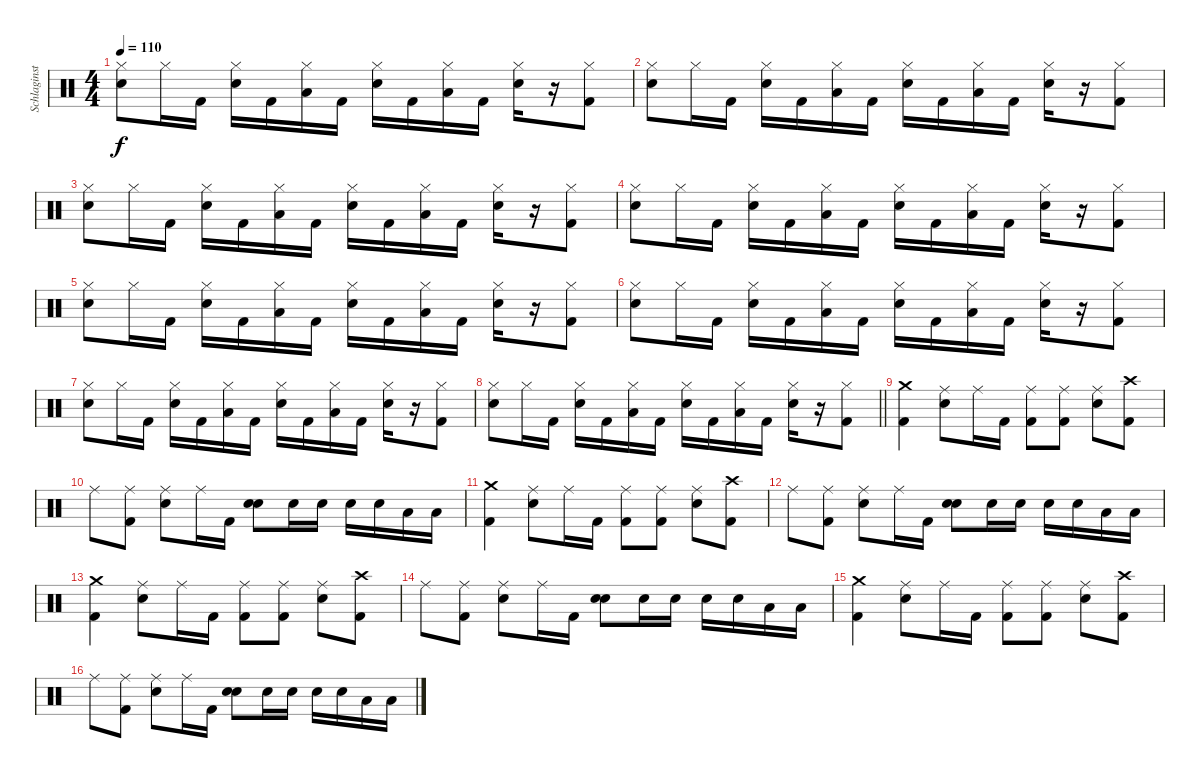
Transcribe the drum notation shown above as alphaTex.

\track ("Schlaginstrumente - Auswahl" "Schlaginst") {instrument percussion}
\staff {score}
\articulation defaults
\ts (4 4)
\tempo 110
\clef neutral
\ks c
("Hi-Hat (closed)" "Snare (hit) 2").8{dy f} "Hi-Hat (closed)".16 "Kick (hit) 2".16 ("Hi-Hat (closed)" "Snare (hit) 2").16 "Kick (hit) 2".16 ("Hi-Hat (closed)" "Low Floor Tom (hit)").16 "Kick (hit) 2".16 ("Hi-Hat (closed)" "Snare (hit) 2").16 "Kick (hit) 2".16 ("Hi-Hat (closed)" "Low Floor Tom (hit)").16 "Kick (hit) 2".16 ("Hi-Hat (closed)" "Snare (hit) 2").16 r.16 ("Hi-Hat (closed)" "Kick (hit) 2").8 |
("Hi-Hat (closed)" "Snare (hit) 2").8 "Hi-Hat (closed)".16 "Kick (hit) 2".16 ("Hi-Hat (closed)" "Snare (hit) 2").16 "Kick (hit) 2".16 ("Hi-Hat (closed)" "Low Floor Tom (hit)").16 "Kick (hit) 2".16 ("Hi-Hat (closed)" "Snare (hit) 2").16 "Kick (hit) 2".16 ("Hi-Hat (closed)" "Low Floor Tom (hit)").16 "Kick (hit) 2".16 ("Hi-Hat (closed)" "Snare (hit) 2").16 r.16 ("Hi-Hat (closed)" "Kick (hit) 2").8 |
("Hi-Hat (closed)" "Snare (hit) 2").8 "Hi-Hat (closed)".16 "Kick (hit) 2".16 ("Hi-Hat (closed)" "Snare (hit) 2").16 "Kick (hit) 2".16 ("Hi-Hat (closed)" "Low Floor Tom (hit)").16 "Kick (hit) 2".16 ("Hi-Hat (closed)" "Snare (hit) 2").16 "Kick (hit) 2".16 ("Hi-Hat (closed)" "Low Floor Tom (hit)").16 "Kick (hit) 2".16 ("Hi-Hat (closed)" "Snare (hit) 2").16 r.16 ("Hi-Hat (closed)" "Kick (hit) 2").8 |
("Hi-Hat (closed)" "Snare (hit) 2").8 "Hi-Hat (closed)".16 "Kick (hit) 2".16 ("Hi-Hat (closed)" "Snare (hit) 2").16 "Kick (hit) 2".16 ("Hi-Hat (closed)" "Low Floor Tom (hit)").16 "Kick (hit) 2".16 ("Hi-Hat (closed)" "Snare (hit) 2").16 "Kick (hit) 2".16 ("Hi-Hat (closed)" "Low Floor Tom (hit)").16 "Kick (hit) 2".16 ("Hi-Hat (closed)" "Snare (hit) 2").16 r.16 ("Hi-Hat (closed)" "Kick (hit) 2").8 |
("Hi-Hat (closed)" "Snare (hit) 2").8 "Hi-Hat (closed)".16 "Kick (hit) 2".16 ("Hi-Hat (closed)" "Snare (hit) 2").16 "Kick (hit) 2".16 ("Hi-Hat (closed)" "Low Floor Tom (hit)").16 "Kick (hit) 2".16 ("Hi-Hat (closed)" "Snare (hit) 2").16 "Kick (hit) 2".16 ("Hi-Hat (closed)" "Low Floor Tom (hit)").16 "Kick (hit) 2".16 ("Hi-Hat (closed)" "Snare (hit) 2").16 r.16 ("Hi-Hat (closed)" "Kick (hit) 2").8 |
("Hi-Hat (closed)" "Snare (hit) 2").8 "Hi-Hat (closed)".16 "Kick (hit) 2".16 ("Hi-Hat (closed)" "Snare (hit) 2").16 "Kick (hit) 2".16 ("Hi-Hat (closed)" "Low Floor Tom (hit)").16 "Kick (hit) 2".16 ("Hi-Hat (closed)" "Snare (hit) 2").16 "Kick (hit) 2".16 ("Hi-Hat (closed)" "Low Floor Tom (hit)").16 "Kick (hit) 2".16 ("Hi-Hat (closed)" "Snare (hit) 2").16 r.16 ("Hi-Hat (closed)" "Kick (hit) 2").8 |
("Hi-Hat (closed)" "Snare (hit) 2").8 "Hi-Hat (closed)".16 "Kick (hit) 2".16 ("Hi-Hat (closed)" "Snare (hit) 2").16 "Kick (hit) 2".16 ("Hi-Hat (closed)" "Low Floor Tom (hit)").16 "Kick (hit) 2".16 ("Hi-Hat (closed)" "Snare (hit) 2").16 "Kick (hit) 2".16 ("Hi-Hat (closed)" "Low Floor Tom (hit)").16 "Kick (hit) 2".16 ("Hi-Hat (closed)" "Snare (hit) 2").16 r.16 ("Hi-Hat (closed)" "Kick (hit) 2").8 |
\barLineRight lightlight
("Hi-Hat (closed)" "Snare (hit) 2").8 "Hi-Hat (closed)".16 "Kick (hit) 2".16 ("Hi-Hat (closed)" "Snare (hit) 2").16 "Kick (hit) 2".16 ("Hi-Hat (closed)" "Low Floor Tom (hit)").16 "Kick (hit) 2".16 ("Hi-Hat (closed)" "Snare (hit) 2").16 "Kick (hit) 2".16 ("Hi-Hat (closed)" "Low Floor Tom (hit)").16 "Kick (hit) 2".16 ("Hi-Hat (closed)" "Snare (hit) 2").16 r.16 ("Hi-Hat (closed)" "Kick (hit) 2").8 |
("Crash medium (hit)" "Kick (hit) 2").4 ("Ride (middle)" "Snare (hit) 2").8 "Ride (middle)".16 "Kick (hit) 2".16 ("Ride (middle)" "Kick (hit) 2").8 ("Ride (middle)" "Kick (hit) 2").8 ("Ride (middle)" "Snare (hit) 2").8 ("Crash high (hit)" "Kick (hit) 2").8 |
"Ride (middle)".8 ("Ride (middle)" "Kick (hit) 2").8 ("Ride (middle)" "Snare (hit) 2").8 "Ride (middle)".16 "Kick (hit) 2".16 ("Snare (hit) 2" "Snare (hit) 2").8{bd 240} "Snare (hit) 2".16 "Snare (hit) 2".16 "Snare (hit) 2".16 "Snare (hit) 2".16 "Low Tom (hit)".16 "Low Tom (hit)".16 |
("Crash medium (hit)" "Kick (hit) 2").4 ("Ride (middle)" "Snare (hit) 2").8 "Ride (middle)".16 "Kick (hit) 2".16 ("Ride (middle)" "Kick (hit) 2").8 ("Ride (middle)" "Kick (hit) 2").8 ("Ride (middle)" "Snare (hit) 2").8 ("Crash high (hit)" "Kick (hit) 2").8 |
"Ride (middle)".8 ("Ride (middle)" "Kick (hit) 2").8 ("Ride (middle)" "Snare (hit) 2").8 "Ride (middle)".16 "Kick (hit) 2".16 ("Snare (hit) 2" "Snare (hit) 2").8{bd 240} "Snare (hit) 2".16 "Snare (hit) 2".16 "Snare (hit) 2".16 "Snare (hit) 2".16 "Low Tom (hit)".16 "Low Tom (hit)".16 |
("Crash medium (hit)" "Kick (hit) 2").4 ("Ride (middle)" "Snare (hit) 2").8 "Ride (middle)".16 "Kick (hit) 2".16 ("Ride (middle)" "Kick (hit) 2").8 ("Ride (middle)" "Kick (hit) 2").8 ("Ride (middle)" "Snare (hit) 2").8 ("Crash high (hit)" "Kick (hit) 2").8 |
"Ride (middle)".8 ("Ride (middle)" "Kick (hit) 2").8 ("Ride (middle)" "Snare (hit) 2").8 "Ride (middle)".16 "Kick (hit) 2".16 ("Snare (hit) 2" "Snare (hit) 2").8{bd 240} "Snare (hit) 2".16 "Snare (hit) 2".16 "Snare (hit) 2".16 "Snare (hit) 2".16 "Low Tom (hit)".16 "Low Tom (hit)".16 |
("Crash medium (hit)" "Kick (hit) 2").4 ("Ride (middle)" "Snare (hit) 2").8 "Ride (middle)".16 "Kick (hit) 2".16 ("Ride (middle)" "Kick (hit) 2").8 ("Ride (middle)" "Kick (hit) 2").8 ("Ride (middle)" "Snare (hit) 2").8 ("Crash high (hit)" "Kick (hit) 2").8 |
"Ride (middle)".8 ("Ride (middle)" "Kick (hit) 2").8 ("Ride (middle)" "Snare (hit) 2").8 "Ride (middle)".16 "Kick (hit) 2".16 ("Snare (hit) 2" "Snare (hit) 2").8{bd 240} "Snare (hit) 2".16 "Snare (hit) 2".16 "Snare (hit) 2".16 "Snare (hit) 2".16 "Low Tom (hit)".16 "Low Tom (hit)".16
